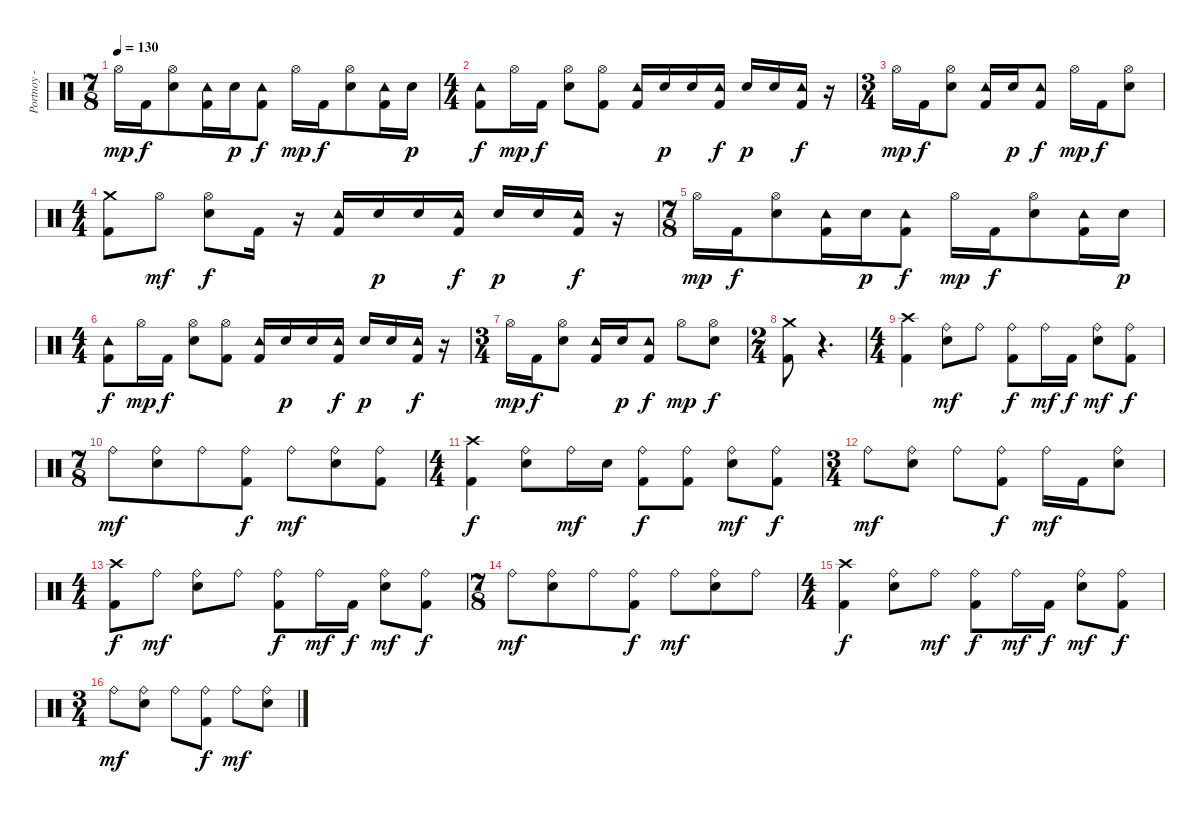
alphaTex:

\track ("Portnoy - Drums" "Portnoy - ") {instrument percussion}
\staff {score}
\articulation defaults
\ts (7 8)
\tempo 130
\clef neutral
\ks c "Hi-Hat (open)".16{dy mp} "Kick (hit) 2".16{dy f}
("Electric Snare (hit)" "Hi-Hat (open)").8 ("Kick (hit) 2" "Tambourine (hit)").16 "Electric Snare (hit)".16{dy p} ("Kick (hit) 2" "Tambourine (hit)").8{dy f} "Hi-Hat (open)".16{dy mp} "Kick (hit) 2".16{dy f} ("Electric Snare (hit)" "Hi-Hat (open)").8 ("Kick (hit) 2" "Tambourine (hit)").16 "Electric Snare (hit)".16{dy p} |
\ts (4 4)
("Kick (hit) 2" "Tambourine (hit)").8{dy f} "Hi-Hat (open)".16{dy mp} "Kick (hit) 2".16{dy f} ("Electric Snare (hit)" "Hi-Hat (open)").8 ("Kick (hit) 2" "Hi-Hat (open)").8 ("Kick (hit) 2" "Tambourine (hit)").16 "Electric Snare (hit)".16{dy p} "Electric Snare (hit)".16 ("Kick (hit) 2" "Tambourine (hit)").16{dy f} "Electric Snare (hit)".16{dy p} "Electric Snare (hit)".16 ("Kick (hit) 2" "Tambourine (hit)").16{dy f} r.16 |
\ts (3 4)
"Hi-Hat (open)".16{dy mp} "Kick (hit) 2".16{dy f} ("Electric Snare (hit)" "Hi-Hat (open)").8 ("Kick (hit) 2" "Tambourine (hit)").16 "Electric Snare (hit)".16{dy p} ("Kick (hit) 2" "Tambourine (hit)").8{dy f} "Hi-Hat (open)".16{dy mp} "Kick (hit) 2".16{dy f} ("Electric Snare (hit)" "Hi-Hat (open)").8 |
\ts (4 4)
("Crash medium (hit)" "Kick (hit) 2").8 "Hi-Hat (open)".8{dy mf} ("Electric Snare (hit)" "Hi-Hat (open)").8{dy f} "Kick (hit) 2".16 r.16 ("Kick (hit) 2" "Tambourine (hit)").16 "Electric Snare (hit)".16{dy p} "Electric Snare (hit)".16 ("Kick (hit) 2" "Tambourine (hit)").16{dy f} "Electric Snare (hit)".16{dy p} "Electric Snare (hit)".16 ("Kick (hit) 2" "Tambourine (hit)").16{dy f} r.16 |
\ts (7 8)
"Hi-Hat (open)".16{dy mp} "Kick (hit) 2".16{dy f} ("Electric Snare (hit)" "Hi-Hat (open)").8 ("Kick (hit) 2" "Tambourine (hit)").16 "Electric Snare (hit)".16{dy p} ("Kick (hit) 2" "Tambourine (hit)").8{dy f} "Hi-Hat (open)".16{dy mp} "Kick (hit) 2".16{dy f} ("Electric Snare (hit)" "Hi-Hat (open)").8 ("Kick (hit) 2" "Tambourine (hit)").16 "Electric Snare (hit)".16{dy p} |
\ts (4 4)
("Kick (hit) 2" "Tambourine (hit)").8{dy f} "Hi-Hat (open)".16{dy mp} "Kick (hit) 2".16{dy f} ("Electric Snare (hit)" "Hi-Hat (open)").8 ("Kick (hit) 2" "Hi-Hat (open)").8 ("Kick (hit) 2" "Tambourine (hit)").16 "Electric Snare (hit)".16{dy p} "Electric Snare (hit)".16 ("Kick (hit) 2" "Tambourine (hit)").16{dy f} "Electric Snare (hit)".16{dy p} "Electric Snare (hit)".16 ("Kick (hit) 2" "Tambourine (hit)").16{dy f} r.16 |
\ts (3 4)
"Hi-Hat (open)".16{dy mp} "Kick (hit) 2".16{dy f} ("Electric Snare (hit)" "Hi-Hat (open)").8 ("Kick (hit) 2" "Tambourine (hit)").16 "Electric Snare (hit)".16{dy p} ("Kick (hit) 2" "Tambourine (hit)").8{dy f} "Hi-Hat (open)".8{dy mp} ("Electric Snare (hit)" "Hi-Hat (open)").8{dy f} |
\ts (2 4)
("Kick (hit) 2" "Crash medium (hit)").8 r.4{d} |
\ts (4 4)
("Kick (hit) 2" "Crash high (hit)").4 ("Electric Snare (hit)" "Ride (bell)").8{dy mf} "Ride (bell)".8 ("Kick (hit) 2" "Ride (bell)").8{dy f} "Ride (bell)".16{dy mf} "Kick (hit) 2".16{dy f} ("Electric Snare (hit)" "Ride (bell)").8{dy mf} ("Kick (hit) 2" "Ride (bell)").8{dy f} |
\ts (7 8)
"Ride (bell)".8{dy mf} ("Electric Snare (hit)" "Ride (bell)").8 "Ride (bell)".8 ("Kick (hit) 2" "Ride (bell)").8{dy f} "Ride (bell)".8{dy mf} ("Electric Snare (hit)" "Ride (bell)").8 ("Kick (hit) 2" "Ride (bell)").8 |
\ts (4 4)
("Crash high (hit)" "Kick (hit) 2").4{dy f} ("Ride (bell)" "Electric Snare (hit)").8 "Ride (bell)".16{dy mf} "Electric Snare (hit)".16 ("Ride (bell)" "Kick (hit) 2").8{dy f} ("Ride (bell)" "Kick (hit) 2").8 ("Electric Snare (hit)" "Ride (bell)").8{dy mf} ("Kick (hit) 2" "Ride (bell)").8{dy f} |
\ts (3 4)
"Ride (bell)".8{dy mf} ("Electric Snare (hit)" "Ride (bell)").8 "Ride (bell)".8 ("Kick (hit) 2" "Ride (bell)").8{dy f} "Ride (bell)".16{dy mf} "Kick (hit) 2".16 ("Electric Snare (hit)" "Ride (bell)").8 |
\ts (4 4)
("Crash high (hit)" "Kick (hit) 2").8{dy f} "Ride (bell)".8{dy mf} ("Electric Snare (hit)" "Ride (bell)").8 "Ride (bell)".8 ("Kick (hit) 2" "Ride (bell)").8{dy f} "Ride (bell)".16{dy mf} "Kick (hit) 2".16{dy f} ("Electric Snare (hit)" "Ride (bell)").8{dy mf} ("Kick (hit) 2" "Ride (bell)").8{dy f} |
\ts (7 8)
"Ride (bell)".8{dy mf} ("Electric Snare (hit)" "Ride (bell)").8 "Ride (bell)".8 ("Kick (hit) 2" "Ride (bell)").8{dy f} "Ride (bell)".8{dy mf} ("Electric Snare (hit)" "Ride (bell)").8 "Ride (bell)".8 |
\ts (4 4)
("Crash high (hit)" "Kick (hit) 2").4{dy f} ("Ride (bell)" "Electric Snare (hit)").8 "Ride (bell)".8{dy mf} ("Ride (bell)" "Kick (hit) 2").8{dy f} "Ride (bell)".16{dy mf} "Kick (hit) 2".16{dy f} ("Electric Snare (hit)" "Ride (bell)").8{dy mf} ("Kick (hit) 2" "Ride (bell)").8{dy f} |
\ts (3 4)
"Ride (bell)".8{dy mf} ("Electric Snare (hit)" "Ride (bell)").8 "Ride (bell)".8 ("Kick (hit) 2" "Ride (bell)").8{dy f} "Ride (bell)".8{dy mf} ("Electric Snare (hit)" "Ride (bell)").8
